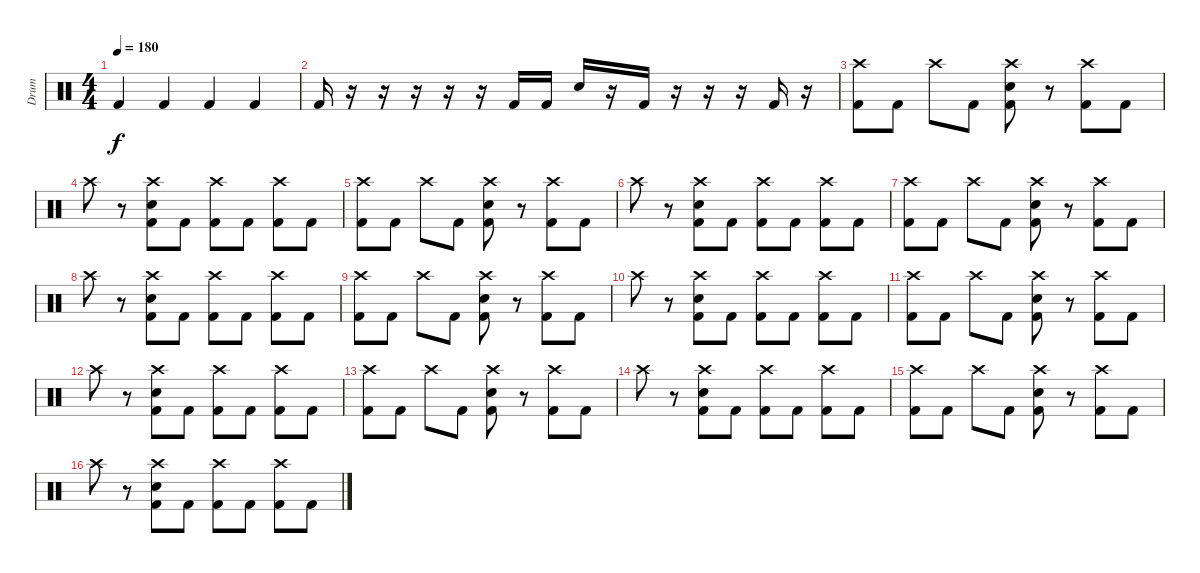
\track ("Drum" "Drum") {instrument percussion}
\staff {score}
\articulation defaults
\ts (4 4)
\tempo 180
\clef neutral
\ks c "Kick (hit) 2".4{dy f} "Kick (hit) 2".4 "Kick (hit) 2".4 "Kick (hit) 2".4
|
"Kick (hit) 2".16 r.16 r.16 r.16 r.16 r.16 "Kick (hit) 2".16 "Kick (hit) 2".16 "Electric Snare (hit)".16 r.16 "Kick (hit) 2".16 r.16 r.16 r.16 "Kick (hit) 2".16 r.16 |
("Crash high (hit)" "Kick (hit) 2").8 "Kick (hit) 2".8 "Crash high (hit)".8 "Kick (hit) 2".8 ("Crash high (hit)" "Electric Snare (hit)" "Kick (hit) 2").8 r.8 ("Crash high (hit)" "Kick (hit) 2").8 "Kick (hit) 2".8 |
"Crash high (hit)".8 r.8 ("Crash high (hit)" "Electric Snare (hit)" "Kick (hit) 2").8 "Kick (hit) 2".8 ("Crash high (hit)" "Kick (hit) 2").8 "Kick (hit) 2".8 ("Crash high (hit)" "Kick (hit) 2").8 "Kick (hit) 2".8 |
("Crash high (hit)" "Kick (hit) 2").8 "Kick (hit) 2".8 "Crash high (hit)".8 "Kick (hit) 2".8 ("Crash high (hit)" "Electric Snare (hit)" "Kick (hit) 2").8 r.8 ("Crash high (hit)" "Kick (hit) 2").8 "Kick (hit) 2".8 |
"Crash high (hit)".8 r.8 ("Crash high (hit)" "Electric Snare (hit)" "Kick (hit) 2").8 "Kick (hit) 2".8 ("Crash high (hit)" "Kick (hit) 2").8 "Kick (hit) 2".8 ("Crash high (hit)" "Kick (hit) 2").8 "Kick (hit) 2".8 |
("Crash high (hit)" "Kick (hit) 2").8 "Kick (hit) 2".8 "Crash high (hit)".8 "Kick (hit) 2".8 ("Crash high (hit)" "Electric Snare (hit)" "Kick (hit) 2").8 r.8 ("Crash high (hit)" "Kick (hit) 2").8 "Kick (hit) 2".8 |
"Crash high (hit)".8 r.8 ("Crash high (hit)" "Electric Snare (hit)" "Kick (hit) 2").8 "Kick (hit) 2".8 ("Crash high (hit)" "Kick (hit) 2").8 "Kick (hit) 2".8 ("Crash high (hit)" "Kick (hit) 2").8 "Kick (hit) 2".8 |
("Crash high (hit)" "Kick (hit) 2").8 "Kick (hit) 2".8 "Crash high (hit)".8 "Kick (hit) 2".8 ("Crash high (hit)" "Electric Snare (hit)" "Kick (hit) 2").8 r.8 ("Crash high (hit)" "Kick (hit) 2").8 "Kick (hit) 2".8 |
"Crash high (hit)".8 r.8 ("Crash high (hit)" "Electric Snare (hit)" "Kick (hit) 2").8 "Kick (hit) 2".8 ("Crash high (hit)" "Kick (hit) 2").8 "Kick (hit) 2".8 ("Crash high (hit)" "Kick (hit) 2").8 "Kick (hit) 2".8 |
("Crash high (hit)" "Kick (hit) 2").8 "Kick (hit) 2".8 "Crash high (hit)".8 "Kick (hit) 2".8 ("Crash high (hit)" "Electric Snare (hit)" "Kick (hit) 2").8 r.8 ("Crash high (hit)" "Kick (hit) 2").8 "Kick (hit) 2".8 |
"Crash high (hit)".8 r.8 ("Crash high (hit)" "Electric Snare (hit)" "Kick (hit) 2").8 "Kick (hit) 2".8 ("Crash high (hit)" "Kick (hit) 2").8 "Kick (hit) 2".8 ("Crash high (hit)" "Kick (hit) 2").8 "Kick (hit) 2".8 |
("Crash high (hit)" "Kick (hit) 2").8 "Kick (hit) 2".8 "Crash high (hit)".8 "Kick (hit) 2".8 ("Crash high (hit)" "Electric Snare (hit)" "Kick (hit) 2").8 r.8 ("Crash high (hit)" "Kick (hit) 2").8 "Kick (hit) 2".8 |
"Crash high (hit)".8 r.8 ("Crash high (hit)" "Electric Snare (hit)" "Kick (hit) 2").8 "Kick (hit) 2".8 ("Crash high (hit)" "Kick (hit) 2").8 "Kick (hit) 2".8 ("Crash high (hit)" "Kick (hit) 2").8 "Kick (hit) 2".8 |
("Crash high (hit)" "Kick (hit) 2").8 "Kick (hit) 2".8 "Crash high (hit)".8 "Kick (hit) 2".8 ("Crash high (hit)" "Electric Snare (hit)" "Kick (hit) 2").8 r.8 ("Crash high (hit)" "Kick (hit) 2").8 "Kick (hit) 2".8 |
"Crash high (hit)".8 r.8 ("Crash high (hit)" "Electric Snare (hit)" "Kick (hit) 2").8 "Kick (hit) 2".8 ("Crash high (hit)" "Kick (hit) 2").8 "Kick (hit) 2".8 ("Crash high (hit)" "Kick (hit) 2").8 "Kick (hit) 2".8
